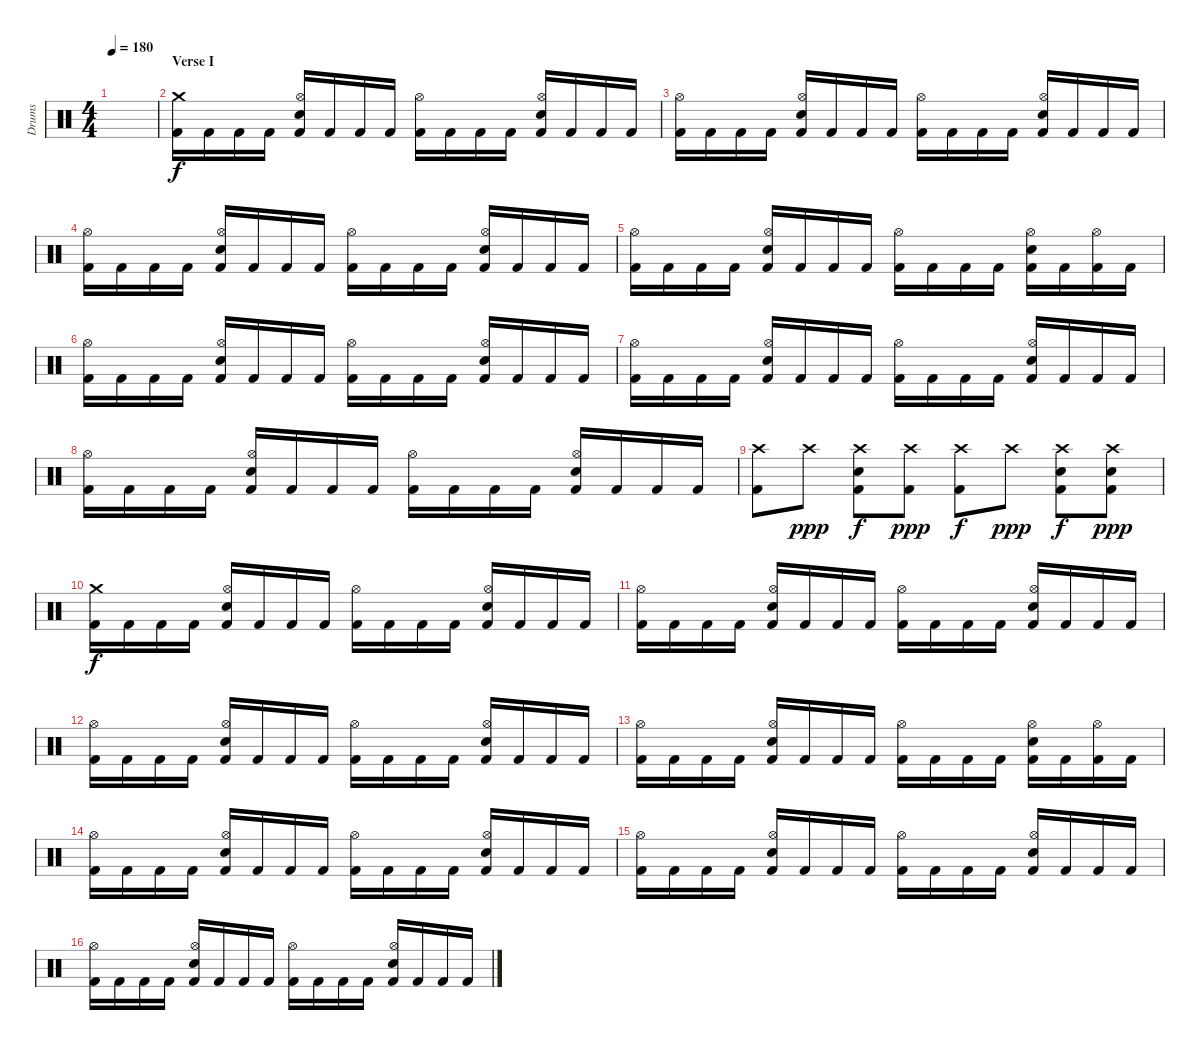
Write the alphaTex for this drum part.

\track ("Drums" "Drums") {instrument percussion}
\staff {score}
\articulation defaults
\ts (4 4)
\tempo 180
\clef neutral
\ks c
|
\section ("" "Verse I")
("Kick (hit) 2" "Crash medium (hit)").16 "Kick (hit) 2".16 "Kick (hit) 2".16 "Kick (hit) 2".16 ("Kick (hit) 2" "Hi-Hat (open)" "Electric Snare (hit)").16 "Kick (hit) 2".16 "Kick (hit) 2".16 "Kick (hit) 2".16 ("Kick (hit) 2" "Hi-Hat (open)").16 "Kick (hit) 2".16 "Kick (hit) 2".16 "Kick (hit) 2".16 ("Kick (hit) 2" "Hi-Hat (open)" "Electric Snare (hit)").16 "Kick (hit) 2".16 "Kick (hit) 2".16 "Kick (hit) 2".16 |
("Kick (hit) 2" "Hi-Hat (open)").16 "Kick (hit) 2".16 "Kick (hit) 2".16 "Kick (hit) 2".16 ("Kick (hit) 2" "Hi-Hat (open)" "Electric Snare (hit)").16 "Kick (hit) 2".16 "Kick (hit) 2".16 "Kick (hit) 2".16 ("Kick (hit) 2" "Hi-Hat (open)").16 "Kick (hit) 2".16 "Kick (hit) 2".16 "Kick (hit) 2".16 ("Kick (hit) 2" "Hi-Hat (open)" "Electric Snare (hit)").16 "Kick (hit) 2".16 "Kick (hit) 2".16 "Kick (hit) 2".16 |
("Kick (hit) 2" "Hi-Hat (open)").16 "Kick (hit) 2".16 "Kick (hit) 2".16 "Kick (hit) 2".16 ("Kick (hit) 2" "Hi-Hat (open)" "Electric Snare (hit)").16 "Kick (hit) 2".16 "Kick (hit) 2".16 "Kick (hit) 2".16 ("Kick (hit) 2" "Hi-Hat (open)").16 "Kick (hit) 2".16 "Kick (hit) 2".16 "Kick (hit) 2".16 ("Kick (hit) 2" "Hi-Hat (open)" "Electric Snare (hit)").16 "Kick (hit) 2".16 "Kick (hit) 2".16 "Kick (hit) 2".16 |
("Kick (hit) 2" "Hi-Hat (open)").16 "Kick (hit) 2".16 "Kick (hit) 2".16 "Kick (hit) 2".16 ("Kick (hit) 2" "Hi-Hat (open)" "Electric Snare (hit)").16 "Kick (hit) 2".16 "Kick (hit) 2".16 "Kick (hit) 2".16 ("Kick (hit) 2" "Hi-Hat (open)").16 "Kick (hit) 2".16 "Kick (hit) 2".16 "Kick (hit) 2".16 ("Kick (hit) 2" "Hi-Hat (open)" "Electric Snare (hit)").16 "Kick (hit) 2".16 ("Kick (hit) 2" "Hi-Hat (open)").16 "Kick (hit) 2".16 |
("Kick (hit) 2" "Hi-Hat (open)").16 "Kick (hit) 2".16 "Kick (hit) 2".16 "Kick (hit) 2".16 ("Kick (hit) 2" "Hi-Hat (open)" "Electric Snare (hit)").16 "Kick (hit) 2".16 "Kick (hit) 2".16 "Kick (hit) 2".16 ("Kick (hit) 2" "Hi-Hat (open)").16 "Kick (hit) 2".16 "Kick (hit) 2".16 "Kick (hit) 2".16 ("Kick (hit) 2" "Hi-Hat (open)" "Electric Snare (hit)").16 "Kick (hit) 2".16 "Kick (hit) 2".16 "Kick (hit) 2".16 |
("Kick (hit) 2" "Hi-Hat (open)").16 "Kick (hit) 2".16 "Kick (hit) 2".16 "Kick (hit) 2".16 ("Kick (hit) 2" "Hi-Hat (open)" "Electric Snare (hit)").16 "Kick (hit) 2".16 "Kick (hit) 2".16 "Kick (hit) 2".16 ("Kick (hit) 2" "Hi-Hat (open)").16 "Kick (hit) 2".16 "Kick (hit) 2".16 "Kick (hit) 2".16 ("Kick (hit) 2" "Hi-Hat (open)" "Electric Snare (hit)").16 "Kick (hit) 2".16 "Kick (hit) 2".16 "Kick (hit) 2".16 |
("Kick (hit) 2" "Hi-Hat (open)").16 "Kick (hit) 2".16 "Kick (hit) 2".16 "Kick (hit) 2".16 ("Kick (hit) 2" "Hi-Hat (open)" "Electric Snare (hit)").16 "Kick (hit) 2".16 "Kick (hit) 2".16 "Kick (hit) 2".16 ("Kick (hit) 2" "Hi-Hat (open)").16 "Kick (hit) 2".16 "Kick (hit) 2".16 "Kick (hit) 2".16 ("Kick (hit) 2" "Hi-Hat (open)" "Electric Snare (hit)").16 "Kick (hit) 2".16 "Kick (hit) 2".16 "Kick (hit) 2".16 |
("Crash high (hit)" "Kick (hit) 2").8 "Crash high (hit)".8{dy ppp} ("Crash high (hit)" "Kick (hit) 2" "Electric Snare (hit)").8{dy f} ("Crash high (hit)" "Kick (hit) 2").8{dy ppp} ("Crash high (hit)" "Kick (hit) 2").8{dy f} "Crash high (hit)".8{dy ppp} ("Crash high (hit)" "Kick (hit) 2" "Electric Snare (hit)").8{dy f} ("Crash high (hit)" "Kick (hit) 2" "Electric Snare (hit)").8{dy ppp} |
("Kick (hit) 2" "Crash medium (hit)").16{dy f} "Kick (hit) 2".16 "Kick (hit) 2".16 "Kick (hit) 2".16 ("Kick (hit) 2" "Hi-Hat (open)" "Electric Snare (hit)").16 "Kick (hit) 2".16 "Kick (hit) 2".16 "Kick (hit) 2".16 ("Kick (hit) 2" "Hi-Hat (open)").16 "Kick (hit) 2".16 "Kick (hit) 2".16 "Kick (hit) 2".16 ("Kick (hit) 2" "Hi-Hat (open)" "Electric Snare (hit)").16 "Kick (hit) 2".16 "Kick (hit) 2".16 "Kick (hit) 2".16 |
("Kick (hit) 2" "Hi-Hat (open)").16 "Kick (hit) 2".16 "Kick (hit) 2".16 "Kick (hit) 2".16 ("Kick (hit) 2" "Hi-Hat (open)" "Electric Snare (hit)").16 "Kick (hit) 2".16 "Kick (hit) 2".16 "Kick (hit) 2".16 ("Kick (hit) 2" "Hi-Hat (open)").16 "Kick (hit) 2".16 "Kick (hit) 2".16 "Kick (hit) 2".16 ("Kick (hit) 2" "Hi-Hat (open)" "Electric Snare (hit)").16 "Kick (hit) 2".16 "Kick (hit) 2".16 "Kick (hit) 2".16 |
("Kick (hit) 2" "Hi-Hat (open)").16 "Kick (hit) 2".16 "Kick (hit) 2".16 "Kick (hit) 2".16 ("Kick (hit) 2" "Hi-Hat (open)" "Electric Snare (hit)").16 "Kick (hit) 2".16 "Kick (hit) 2".16 "Kick (hit) 2".16 ("Kick (hit) 2" "Hi-Hat (open)").16 "Kick (hit) 2".16 "Kick (hit) 2".16 "Kick (hit) 2".16 ("Kick (hit) 2" "Hi-Hat (open)" "Electric Snare (hit)").16 "Kick (hit) 2".16 "Kick (hit) 2".16 "Kick (hit) 2".16 |
("Kick (hit) 2" "Hi-Hat (open)").16 "Kick (hit) 2".16 "Kick (hit) 2".16 "Kick (hit) 2".16 ("Kick (hit) 2" "Hi-Hat (open)" "Electric Snare (hit)").16 "Kick (hit) 2".16 "Kick (hit) 2".16 "Kick (hit) 2".16 ("Kick (hit) 2" "Hi-Hat (open)").16 "Kick (hit) 2".16 "Kick (hit) 2".16 "Kick (hit) 2".16 ("Kick (hit) 2" "Hi-Hat (open)" "Electric Snare (hit)").16 "Kick (hit) 2".16 ("Kick (hit) 2" "Hi-Hat (open)").16 "Kick (hit) 2".16 |
("Kick (hit) 2" "Hi-Hat (open)").16 "Kick (hit) 2".16 "Kick (hit) 2".16 "Kick (hit) 2".16 ("Kick (hit) 2" "Hi-Hat (open)" "Electric Snare (hit)").16 "Kick (hit) 2".16 "Kick (hit) 2".16 "Kick (hit) 2".16 ("Kick (hit) 2" "Hi-Hat (open)").16 "Kick (hit) 2".16 "Kick (hit) 2".16 "Kick (hit) 2".16 ("Kick (hit) 2" "Hi-Hat (open)" "Electric Snare (hit)").16 "Kick (hit) 2".16 "Kick (hit) 2".16 "Kick (hit) 2".16 |
("Kick (hit) 2" "Hi-Hat (open)").16 "Kick (hit) 2".16 "Kick (hit) 2".16 "Kick (hit) 2".16 ("Kick (hit) 2" "Hi-Hat (open)" "Electric Snare (hit)").16 "Kick (hit) 2".16 "Kick (hit) 2".16 "Kick (hit) 2".16 ("Kick (hit) 2" "Hi-Hat (open)").16 "Kick (hit) 2".16 "Kick (hit) 2".16 "Kick (hit) 2".16 ("Kick (hit) 2" "Hi-Hat (open)" "Electric Snare (hit)").16 "Kick (hit) 2".16 "Kick (hit) 2".16 "Kick (hit) 2".16 |
("Kick (hit) 2" "Hi-Hat (open)").16 "Kick (hit) 2".16 "Kick (hit) 2".16 "Kick (hit) 2".16 ("Kick (hit) 2" "Hi-Hat (open)" "Electric Snare (hit)").16 "Kick (hit) 2".16 "Kick (hit) 2".16 "Kick (hit) 2".16 ("Kick (hit) 2" "Hi-Hat (open)").16 "Kick (hit) 2".16 "Kick (hit) 2".16 "Kick (hit) 2".16 ("Kick (hit) 2" "Hi-Hat (open)" "Electric Snare (hit)").16 "Kick (hit) 2".16 "Kick (hit) 2".16 "Kick (hit) 2".16
